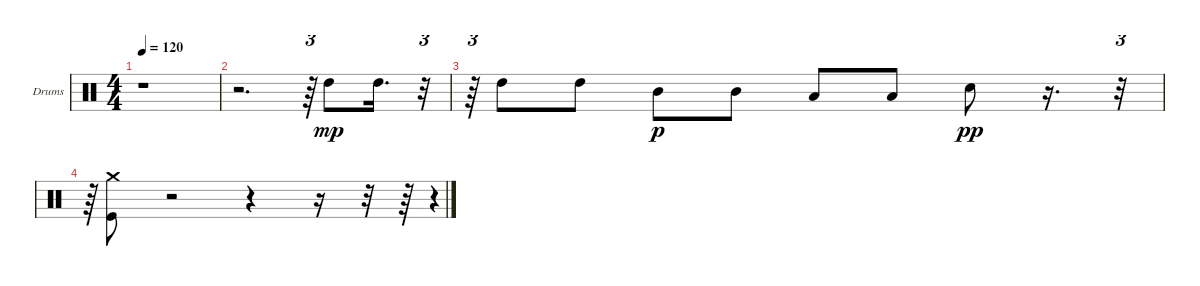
\bracketExtendMode groupsimilarinstruments
\firstSystemTrackNameOrientation horizontal
\otherSystemsTrackNameOrientation horizontal
\track ("Drums" "Drums") {instrument percussion}
\staff {score}
\articulation defaults
\ts (4 4)
\tempo 120
\clef neutral
\ks c
r.1{dy mf} |
r.2{d} r.64{tu (3 2)} "High Tom (hit)".8{dy mp} "High Tom (hit)".16{d} r.32{tu (3 2)} |
r.64{tu (3 2)} "High Tom (hit)".8 "High Tom (hit)".8 "Mid Tom (hit)".8{dy p} "Mid Tom (hit)".8 "Low Tom (hit)".8 "Low Tom (hit)".8 "Snare (hit) 2".8{dy pp} r.16{d} r.32{tu (3 2)} |
r.64{tu (3 2)} ("Crash medium (hit)" "Kick (hit)").8 r.2 r.4 r.16 r.32 r.64 r.4{tu (48 1)}
